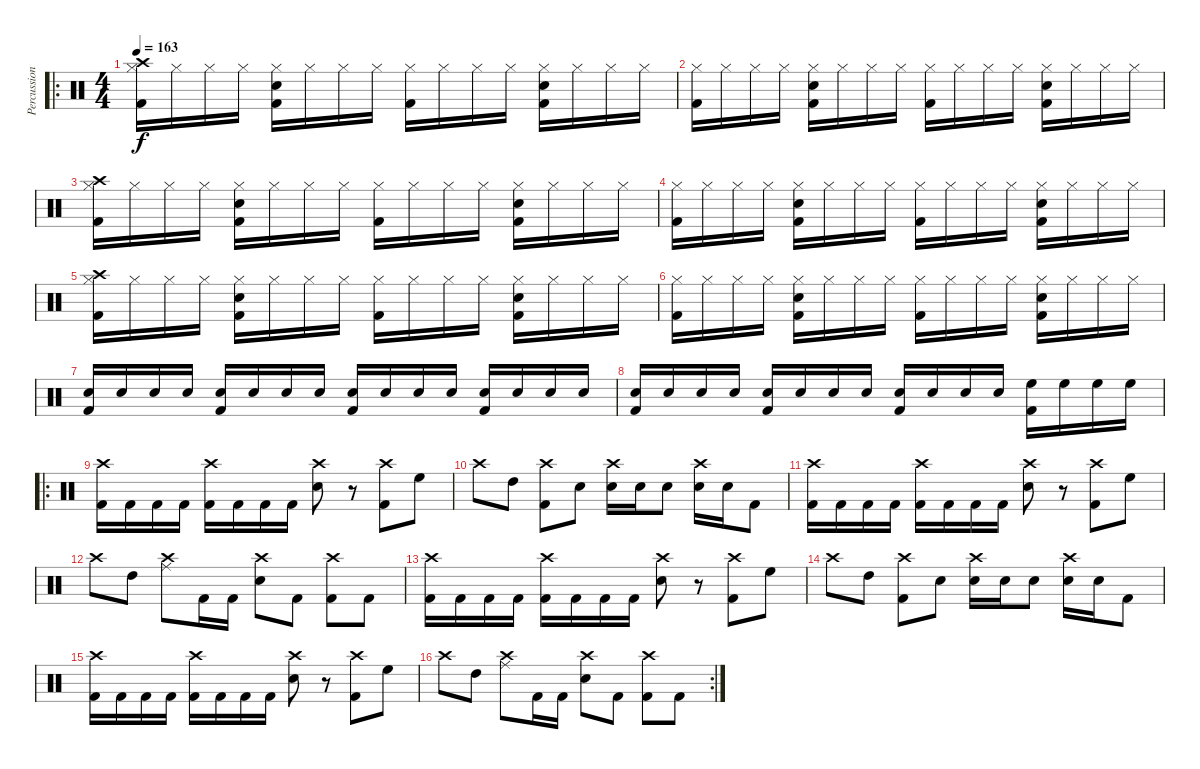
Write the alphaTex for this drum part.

\track ("Percussion" "Percussion") {instrument percussion}
\staff {score}
\articulation defaults
\ro
\ts (4 4)
\tempo 163
\clef neutral
\ks c
("Crash high (hit)" "Hi-Hat (closed)" "Kick (hit) 2").16{dy f} "Hi-Hat (closed)".16 "Hi-Hat (closed)".16 "Hi-Hat (closed)".16 ("Snare (hit) 2" "Hi-Hat (closed)" "Kick (hit) 2").16 "Hi-Hat (closed)".16 "Hi-Hat (closed)".16 "Hi-Hat (closed)".16 ("Hi-Hat (closed)" "Kick (hit) 2").16 "Hi-Hat (closed)".16 "Hi-Hat (closed)".16 "Hi-Hat (closed)".16 ("Snare (hit) 2" "Hi-Hat (closed)" "Kick (hit) 2").16 "Hi-Hat (closed)".16 "Hi-Hat (closed)".16 "Hi-Hat (closed)".16 |
("Hi-Hat (closed)" "Kick (hit) 2").16 "Hi-Hat (closed)".16 "Hi-Hat (closed)".16 "Hi-Hat (closed)".16 ("Snare (hit) 2" "Hi-Hat (closed)" "Kick (hit) 2").16 "Hi-Hat (closed)".16 "Hi-Hat (closed)".16 "Hi-Hat (closed)".16 ("Hi-Hat (closed)" "Kick (hit) 2").16 "Hi-Hat (closed)".16 "Hi-Hat (closed)".16 "Hi-Hat (closed)".16 ("Snare (hit) 2" "Hi-Hat (closed)" "Kick (hit) 2").16 "Hi-Hat (closed)".16 "Hi-Hat (closed)".16 "Hi-Hat (closed)".16 |
("Crash high (hit)" "Hi-Hat (closed)" "Kick (hit) 2").16 "Hi-Hat (closed)".16 "Hi-Hat (closed)".16 "Hi-Hat (closed)".16 ("Snare (hit) 2" "Hi-Hat (closed)" "Kick (hit) 2").16 "Hi-Hat (closed)".16 "Hi-Hat (closed)".16 "Hi-Hat (closed)".16 ("Hi-Hat (closed)" "Kick (hit) 2").16 "Hi-Hat (closed)".16 "Hi-Hat (closed)".16 "Hi-Hat (closed)".16 ("Snare (hit) 2" "Hi-Hat (closed)" "Kick (hit) 2").16 "Hi-Hat (closed)".16 "Hi-Hat (closed)".16 "Hi-Hat (closed)".16 |
("Hi-Hat (closed)" "Kick (hit) 2").16 "Hi-Hat (closed)".16 "Hi-Hat (closed)".16 "Hi-Hat (closed)".16 ("Snare (hit) 2" "Hi-Hat (closed)" "Kick (hit) 2").16 "Hi-Hat (closed)".16 "Hi-Hat (closed)".16 "Hi-Hat (closed)".16 ("Hi-Hat (closed)" "Kick (hit) 2").16 "Hi-Hat (closed)".16 "Hi-Hat (closed)".16 "Hi-Hat (closed)".16 ("Snare (hit) 2" "Hi-Hat (closed)" "Kick (hit) 2").16 "Hi-Hat (closed)".16 "Hi-Hat (closed)".16 "Hi-Hat (closed)".16 |
("Crash high (hit)" "Hi-Hat (closed)" "Kick (hit) 2").16 "Hi-Hat (closed)".16 "Hi-Hat (closed)".16 "Hi-Hat (closed)".16 ("Snare (hit) 2" "Hi-Hat (closed)" "Kick (hit) 2").16 "Hi-Hat (closed)".16 "Hi-Hat (closed)".16 "Hi-Hat (closed)".16 ("Hi-Hat (closed)" "Kick (hit) 2").16 "Hi-Hat (closed)".16 "Hi-Hat (closed)".16 "Hi-Hat (closed)".16 ("Snare (hit) 2" "Hi-Hat (closed)" "Kick (hit) 2").16 "Hi-Hat (closed)".16 "Hi-Hat (closed)".16 "Hi-Hat (closed)".16 |
("Hi-Hat (closed)" "Kick (hit) 2").16 "Hi-Hat (closed)".16 "Hi-Hat (closed)".16 "Hi-Hat (closed)".16 ("Snare (hit) 2" "Hi-Hat (closed)" "Kick (hit) 2").16 "Hi-Hat (closed)".16 "Hi-Hat (closed)".16 "Hi-Hat (closed)".16 ("Hi-Hat (closed)" "Kick (hit) 2").16 "Hi-Hat (closed)".16 "Hi-Hat (closed)".16 "Hi-Hat (closed)".16 ("Snare (hit) 2" "Hi-Hat (closed)" "Kick (hit) 2").16 "Hi-Hat (closed)".16 "Hi-Hat (closed)".16 "Hi-Hat (closed)".16 |
("Snare (hit) 2" "Kick (hit) 2").16 "Snare (hit) 2".16 "Snare (hit) 2".16 "Snare (hit) 2".16 ("Snare (hit) 2" "Kick (hit) 2").16 "Snare (hit) 2".16 "Snare (hit) 2".16 "Snare (hit) 2".16 ("Snare (hit) 2" "Kick (hit) 2").16 "Snare (hit) 2".16 "Snare (hit) 2".16 "Snare (hit) 2".16 ("Snare (hit) 2" "Kick (hit) 2").16 "Snare (hit) 2".16 "Snare (hit) 2".16 "Snare (hit) 2".16 |
("Snare (hit) 2" "Kick (hit) 2").16 "Snare (hit) 2".16 "Snare (hit) 2".16 "Snare (hit) 2".16 ("Snare (hit) 2" "Kick (hit) 2").16 "Snare (hit) 2".16 "Snare (hit) 2".16 "Snare (hit) 2".16 ("Snare (hit) 2" "Kick (hit) 2").16 "Snare (hit) 2".16 "Snare (hit) 2".16 "Snare (hit) 2".16 ("High Floor Tom (hit)" "Kick (hit) 2").16 "High Floor Tom (hit)".16 "High Floor Tom (hit)".16 "High Floor Tom (hit)".16 |
\ro
("Crash high (hit)" "Kick (hit) 2").16 "Kick (hit) 2".16 "Kick (hit) 2".16 "Kick (hit) 2".16 ("Crash high (hit)" "Kick (hit) 2").16 "Kick (hit) 2".16 "Kick (hit) 2".16 "Kick (hit) 2".16 ("Crash high (hit)" "Snare (hit) 2").8 r.8 ("Crash high (hit)" "Kick (hit) 2").8 "High Floor Tom (hit)".8 |
"Crash high (hit)".8 "High Tom (hit)".8 ("Crash high (hit)" "Kick (hit) 2").8 "Snare (hit) 2".8 ("Crash high (hit)" "Snare (hit) 2").16 "Snare (hit) 2".16 "Snare (hit) 2".8 ("Crash high (hit)" "Snare (hit) 2").16 "Snare (hit) 2".16 "Kick (hit) 2".8 |
("Crash high (hit)" "Kick (hit) 2").16 "Kick (hit) 2".16 "Kick (hit) 2".16 "Kick (hit) 2".16 ("Crash high (hit)" "Kick (hit) 2").16 "Kick (hit) 2".16 "Kick (hit) 2".16 "Kick (hit) 2".16 ("Crash high (hit)" "Snare (hit) 2").8 r.8 ("Crash high (hit)" "Kick (hit) 2").8 "High Floor Tom (hit)".8 |
"Crash high (hit)".8 "High Tom (hit)".8 ("Crash high (hit)" "Ride (middle)").8 "Kick (hit) 2".16 "Kick (hit) 2".16 ("Crash high (hit)" "Snare (hit) 2").8 "Kick (hit) 2".8 ("Crash high (hit)" "Kick (hit) 2").8 "Kick (hit) 2".8 |
("Crash high (hit)" "Kick (hit) 2").16 "Kick (hit) 2".16 "Kick (hit) 2".16 "Kick (hit) 2".16 ("Crash high (hit)" "Kick (hit) 2").16 "Kick (hit) 2".16 "Kick (hit) 2".16 "Kick (hit) 2".16 ("Crash high (hit)" "Snare (hit) 2").8 r.8 ("Crash high (hit)" "Kick (hit) 2").8 "High Floor Tom (hit)".8 |
"Crash high (hit)".8 "High Tom (hit)".8 ("Crash high (hit)" "Kick (hit) 2").8 "Snare (hit) 2".8 ("Crash high (hit)" "Snare (hit) 2").16 "Snare (hit) 2".16 "Snare (hit) 2".8 ("Crash high (hit)" "Snare (hit) 2").16 "Snare (hit) 2".16 "Kick (hit) 2".8 |
("Crash high (hit)" "Kick (hit) 2").16 "Kick (hit) 2".16 "Kick (hit) 2".16 "Kick (hit) 2".16 ("Crash high (hit)" "Kick (hit) 2").16 "Kick (hit) 2".16 "Kick (hit) 2".16 "Kick (hit) 2".16 ("Crash high (hit)" "Snare (hit) 2").8 r.8 ("Crash high (hit)" "Kick (hit) 2").8 "High Floor Tom (hit)".8 |
\rc 2 "Crash high (hit)".8 "High Tom (hit)".8
("Crash high (hit)" "Ride (middle)").8 "Kick (hit) 2".16 "Kick (hit) 2".16 ("Crash high (hit)" "Snare (hit) 2").8 "Kick (hit) 2".8 ("Crash high (hit)" "Kick (hit) 2").8 "Kick (hit) 2".8
